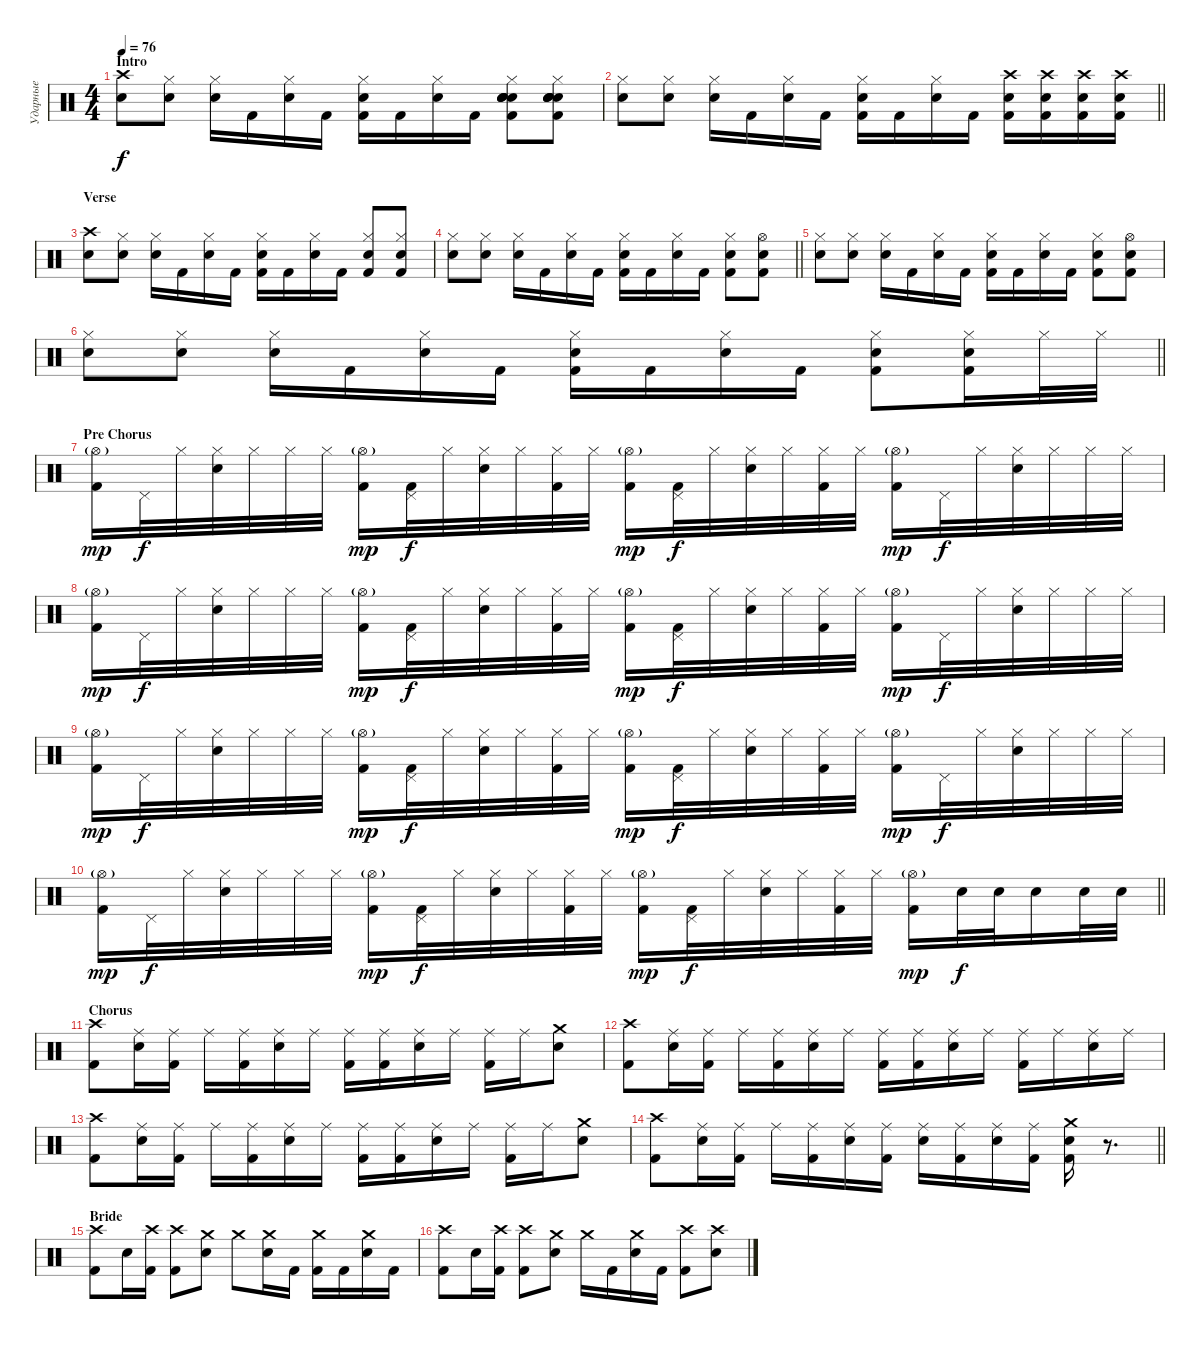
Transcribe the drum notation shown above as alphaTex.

\track ("Ударные" "Ударные") {instrument percussion}
\staff {score}
\articulation defaults
\ts (4 4)
\section ("" "Intro")
\tempo 76
\clef neutral
\ks c
("Crash high (hit)" "Electric Snare (hit)").8{dy f} ("Hi-Hat (closed)" "Electric Snare (hit)").8 ("Hi-Hat (closed)" "Electric Snare (hit)").16 "Kick (hit) 2".16 ("Hi-Hat (closed)" "Electric Snare (hit)").16 "Kick (hit) 2".16 ("Hi-Hat (closed)" "Electric Snare (hit)" "Kick (hit) 2").16 "Kick (hit) 2".16 ("Hi-Hat (closed)" "Electric Snare (hit)").16 "Kick (hit) 2".16 ("Hand Clap (hit)" "Hand Clap (hit)" "Hi-Hat (closed)" "Hand Clap (hit)" "Electric Snare (hit)" "Kick (hit) 2").8{bd 60} ("Hand Clap (hit)" "Hand Clap (hit)" "Hi-Hat (closed)" "Hand Clap (hit)" "Electric Snare (hit)" "Kick (hit) 2").8{bd 60} |
\barLineRight lightlight
("Hi-Hat (closed)" "Electric Snare (hit)").8 ("Hi-Hat (closed)" "Electric Snare (hit)").8 ("Hi-Hat (closed)" "Electric Snare (hit)").16 "Kick (hit) 2".16 ("Hi-Hat (closed)" "Electric Snare (hit)").16 "Kick (hit) 2".16 ("Hi-Hat (closed)" "Electric Snare (hit)" "Kick (hit) 2").16 "Kick (hit) 2".16 ("Hi-Hat (closed)" "Electric Snare (hit)").16 "Kick (hit) 2".16 ("Crash high (hit)" "Electric Snare (hit)" "Kick (hit) 2").16 ("Crash high (hit)" "Electric Snare (hit)" "Kick (hit) 2").16 ("Crash high (hit)" "Electric Snare (hit)" "Kick (hit) 2").16 ("Crash high (hit)" "Electric Snare (hit)" "Kick (hit) 2").16 |
\section ("" "Verse")
("Crash high (hit)" "Electric Snare (hit)").8 ("Hi-Hat (closed)" "Electric Snare (hit)").8 ("Hi-Hat (closed)" "Electric Snare (hit)").16 "Kick (hit) 2".16 ("Hi-Hat (closed)" "Electric Snare (hit)").16 "Kick (hit) 2".16 ("Hi-Hat (closed)" "Electric Snare (hit)" "Kick (hit) 2").16 "Kick (hit) 2".16 ("Hi-Hat (closed)" "Electric Snare (hit)").16 "Kick (hit) 2".16 ("Hi-Hat (closed)" "Electric Snare (hit)" "Kick (hit) 2").8 ("Hi-Hat (closed)" "Electric Snare (hit)" "Kick (hit) 2").8 |
\barLineRight lightlight
("Hi-Hat (closed)" "Electric Snare (hit)").8 ("Hi-Hat (closed)" "Electric Snare (hit)").8 ("Hi-Hat (closed)" "Electric Snare (hit)").16 "Kick (hit) 2".16 ("Hi-Hat (closed)" "Electric Snare (hit)").16 "Kick (hit) 2".16 ("Hi-Hat (closed)" "Electric Snare (hit)" "Kick (hit) 2").16 "Kick (hit) 2".16 ("Hi-Hat (closed)" "Electric Snare (hit)").16 "Kick (hit) 2".16 ("Hi-Hat (closed)" "Electric Snare (hit)" "Kick (hit) 2").8 ("Hi-Hat (open)" "Electric Snare (hit)" "Kick (hit) 2").8 |
("Hi-Hat (closed)" "Electric Snare (hit)").8 ("Hi-Hat (closed)" "Electric Snare (hit)").8 ("Hi-Hat (closed)" "Electric Snare (hit)").16 "Kick (hit) 2".16 ("Hi-Hat (closed)" "Electric Snare (hit)").16 "Kick (hit) 2".16 ("Hi-Hat (closed)" "Electric Snare (hit)" "Kick (hit) 2").16 "Kick (hit) 2".16 ("Hi-Hat (closed)" "Electric Snare (hit)").16 "Kick (hit) 2".16 ("Hi-Hat (closed)" "Electric Snare (hit)" "Kick (hit) 2").8 ("Hi-Hat (open)" "Electric Snare (hit)" "Kick (hit) 2").8 |
\barLineRight lightlight
("Hi-Hat (closed)" "Electric Snare (hit)").8 ("Hi-Hat (closed)" "Electric Snare (hit)").8 ("Hi-Hat (closed)" "Electric Snare (hit)").16 "Kick (hit) 2".16 ("Hi-Hat (closed)" "Electric Snare (hit)").16 "Kick (hit) 2".16 ("Hi-Hat (closed)" "Electric Snare (hit)" "Kick (hit) 2").16 "Kick (hit) 2".16 ("Hi-Hat (closed)" "Electric Snare (hit)").16 "Kick (hit) 2".16 ("Hi-Hat (closed)" "Electric Snare (hit)" "Kick (hit) 2").8 ("Hi-Hat (closed)" "Electric Snare (hit)" "Kick (hit) 2").16 "Hi-Hat (closed)".32 "Hi-Hat (closed)".32 |
\section ("" "Pre Chorus")
("Hi-Hat (open)"{g} "Kick (hit) 2").16{dy mp} "Pedal Hi-Hat (hit)".32{dy f} "Hi-Hat (closed)".32 ("Hi-Hat (closed)" "Electric Snare (hit)").32 "Hi-Hat (closed)".32 "Hi-Hat (closed)".32 "Hi-Hat (closed)".32 ("Hi-Hat (open)"{g} "Kick (hit) 2").16{dy mp} ("Pedal Hi-Hat (hit)" "Kick (hit) 2").32{dy f} "Hi-Hat (closed)".32 ("Hi-Hat (closed)" "Electric Snare (hit)").32 "Hi-Hat (closed)".32 ("Hi-Hat (closed)" "Kick (hit) 2").32 "Hi-Hat (closed)".32 ("Hi-Hat (open)"{g} "Kick (hit) 2").16{dy mp} ("Pedal Hi-Hat (hit)" "Kick (hit) 2").32{dy f} "Hi-Hat (closed)".32 ("Hi-Hat (closed)" "Electric Snare (hit)").32 "Hi-Hat (closed)".32 ("Hi-Hat (closed)" "Kick (hit) 2").32 "Hi-Hat (closed)".32 ("Hi-Hat (open)"{g} "Kick (hit) 2").16{dy mp} "Pedal Hi-Hat (hit)".32{dy f} "Hi-Hat (closed)".32 ("Hi-Hat (closed)" "Electric Snare (hit)").32 "Hi-Hat (closed)".32 "Hi-Hat (closed)".32 "Hi-Hat (closed)".32 |
("Hi-Hat (open)"{g} "Kick (hit) 2").16{dy mp} "Pedal Hi-Hat (hit)".32{dy f} "Hi-Hat (closed)".32 ("Hi-Hat (closed)" "Electric Snare (hit)").32 "Hi-Hat (closed)".32 "Hi-Hat (closed)".32 "Hi-Hat (closed)".32 ("Hi-Hat (open)"{g} "Kick (hit) 2").16{dy mp} ("Pedal Hi-Hat (hit)" "Kick (hit) 2").32{dy f} "Hi-Hat (closed)".32 ("Hi-Hat (closed)" "Electric Snare (hit)").32 "Hi-Hat (closed)".32 ("Hi-Hat (closed)" "Kick (hit) 2").32 "Hi-Hat (closed)".32 ("Hi-Hat (open)"{g} "Kick (hit) 2").16{dy mp} ("Pedal Hi-Hat (hit)" "Kick (hit) 2").32{dy f} "Hi-Hat (closed)".32 ("Hi-Hat (closed)" "Electric Snare (hit)").32 "Hi-Hat (closed)".32 ("Hi-Hat (closed)" "Kick (hit) 2").32 "Hi-Hat (closed)".32 ("Hi-Hat (open)"{g} "Kick (hit) 2").16{dy mp} "Pedal Hi-Hat (hit)".32{dy f} "Hi-Hat (closed)".32 ("Hi-Hat (closed)" "Electric Snare (hit)").32 "Hi-Hat (closed)".32 "Hi-Hat (closed)".32 "Hi-Hat (closed)".32 |
("Hi-Hat (open)"{g} "Kick (hit) 2").16{dy mp} "Pedal Hi-Hat (hit)".32{dy f} "Hi-Hat (closed)".32 ("Hi-Hat (closed)" "Electric Snare (hit)").32 "Hi-Hat (closed)".32 "Hi-Hat (closed)".32 "Hi-Hat (closed)".32 ("Hi-Hat (open)"{g} "Kick (hit) 2").16{dy mp} ("Pedal Hi-Hat (hit)" "Kick (hit) 2").32{dy f} "Hi-Hat (closed)".32 ("Hi-Hat (closed)" "Electric Snare (hit)").32 "Hi-Hat (closed)".32 ("Hi-Hat (closed)" "Kick (hit) 2").32 "Hi-Hat (closed)".32 ("Hi-Hat (open)"{g} "Kick (hit) 2").16{dy mp} ("Pedal Hi-Hat (hit)" "Kick (hit) 2").32{dy f} "Hi-Hat (closed)".32 ("Hi-Hat (closed)" "Electric Snare (hit)").32 "Hi-Hat (closed)".32 ("Hi-Hat (closed)" "Kick (hit) 2").32 "Hi-Hat (closed)".32 ("Hi-Hat (open)"{g} "Kick (hit) 2").16{dy mp} "Pedal Hi-Hat (hit)".32{dy f} "Hi-Hat (closed)".32 ("Hi-Hat (closed)" "Electric Snare (hit)").32 "Hi-Hat (closed)".32 "Hi-Hat (closed)".32 "Hi-Hat (closed)".32 |
\barLineRight lightlight
("Hi-Hat (open)"{g} "Kick (hit) 2").16{dy mp} "Pedal Hi-Hat (hit)".32{dy f} "Hi-Hat (closed)".32 ("Hi-Hat (closed)" "Electric Snare (hit)").32 "Hi-Hat (closed)".32 "Hi-Hat (closed)".32 "Hi-Hat (closed)".32 ("Hi-Hat (open)"{g} "Kick (hit) 2").16{dy mp} ("Pedal Hi-Hat (hit)" "Kick (hit) 2").32{dy f} "Hi-Hat (closed)".32 ("Hi-Hat (closed)" "Electric Snare (hit)").32 "Hi-Hat (closed)".32 ("Hi-Hat (closed)" "Kick (hit) 2").32 "Hi-Hat (closed)".32 ("Hi-Hat (open)"{g} "Kick (hit) 2").16{dy mp} ("Pedal Hi-Hat (hit)" "Kick (hit) 2").32{dy f} "Hi-Hat (closed)".32 ("Hi-Hat (closed)" "Electric Snare (hit)").32 "Hi-Hat (closed)".32 ("Hi-Hat (closed)" "Kick (hit) 2").32 "Hi-Hat (closed)".32 ("Hi-Hat (open)"{g} "Kick (hit) 2").16{dy mp} "Electric Snare (hit)".32{dy f} "Electric Snare (hit)".32 "Electric Snare (hit)".16 "Electric Snare (hit)".32 "Electric Snare (hit)".32 |
\section ("" "Chorus")
("Crash high (hit)" "Kick (hit) 2").8 ("Ride (middle)" "Electric Snare (hit)").16 ("Ride (middle)" "Kick (hit) 2").16 "Ride (middle)".16 ("Ride (middle)" "Kick (hit) 2").16 ("Ride (middle)" "Electric Snare (hit)").16 "Ride (middle)".16 ("Ride (middle)" "Kick (hit) 2").16 ("Ride (middle)" "Kick (hit) 2").16 ("Ride (middle)" "Electric Snare (hit)").16 "Ride (middle)".16 ("Ride (middle)" "Kick (hit) 2").16 "Ride (middle)".16 ("Crash medium (hit)" "Electric Snare (hit)").8 |
("Crash high (hit)" "Kick (hit) 2").8 ("Ride (middle)" "Electric Snare (hit)").16 ("Ride (middle)" "Kick (hit) 2").16 "Ride (middle)".16 ("Ride (middle)" "Kick (hit) 2").16 ("Ride (middle)" "Electric Snare (hit)").16 "Ride (middle)".16 ("Ride (middle)" "Kick (hit) 2").16 ("Ride (middle)" "Kick (hit) 2").16 ("Ride (middle)" "Electric Snare (hit)").16 "Ride (middle)".16 ("Ride (middle)" "Kick (hit) 2").16 "Ride (middle)".16 ("Ride (middle)" "Electric Snare (hit)").16 "Ride (middle)".16 |
("Crash high (hit)" "Kick (hit) 2").8 ("Ride (middle)" "Electric Snare (hit)").16 ("Ride (middle)" "Kick (hit) 2").16 "Ride (middle)".16 ("Ride (middle)" "Kick (hit) 2").16 ("Ride (middle)" "Electric Snare (hit)").16 "Ride (middle)".16 ("Ride (middle)" "Kick (hit) 2").16 ("Ride (middle)" "Kick (hit) 2").16 ("Ride (middle)" "Electric Snare (hit)").16 "Ride (middle)".16 ("Ride (middle)" "Kick (hit) 2").16 "Ride (middle)".16 ("Crash medium (hit)" "Electric Snare (hit)").8 |
\barLineRight lightlight
("Crash high (hit)" "Kick (hit) 2").8 ("Ride (middle)" "Electric Snare (hit)").16 ("Ride (middle)" "Kick (hit) 2").16 "Ride (middle)".16 ("Ride (middle)" "Kick (hit) 2").16 ("Ride (middle)" "Electric Snare (hit)").16 ("Ride (middle)" "Kick (hit) 2").16 ("Ride (middle)" "Electric Snare (hit)").16 ("Ride (middle)" "Kick (hit) 2").16 ("Ride (middle)" "Electric Snare (hit)").16 ("Ride (middle)" "Kick (hit) 2").16 ("Crash medium (hit)" "Electric Snare (hit)" "Kick (hit) 2").16 r.8{d volume 0} |
\section ("" "Bride")
("Crash high (hit)" "Kick (hit) 2").8{volume 16} "Electric Snare (hit)".16 ("Crash high (hit)" "Kick (hit) 2").16 ("Crash high (hit)" "Kick (hit) 2").8 ("Crash medium (hit)" "Electric Snare (hit)").8 "Crash medium (hit)".8 ("Crash medium (hit)" "Electric Snare (hit)").16 "Kick (hit) 2".16 ("Crash medium (hit)" "Kick (hit) 2").16 "Kick (hit) 2".16 ("Crash medium (hit)" "Electric Snare (hit)").16 "Kick (hit) 2".16 |
("Crash high (hit)" "Kick (hit) 2").8 "Electric Snare (hit)".16 ("Crash high (hit)" "Kick (hit) 2").16 ("Crash high (hit)" "Kick (hit) 2").8 ("Crash medium (hit)" "Electric Snare (hit)").8 "Crash medium (hit)".16 "Kick (hit) 2".16 ("Crash medium (hit)" "Electric Snare (hit)").16 "Kick (hit) 2".16 ("Crash high (hit)" "Kick (hit) 2").8 ("Crash high (hit)" "Electric Snare (hit)").8
